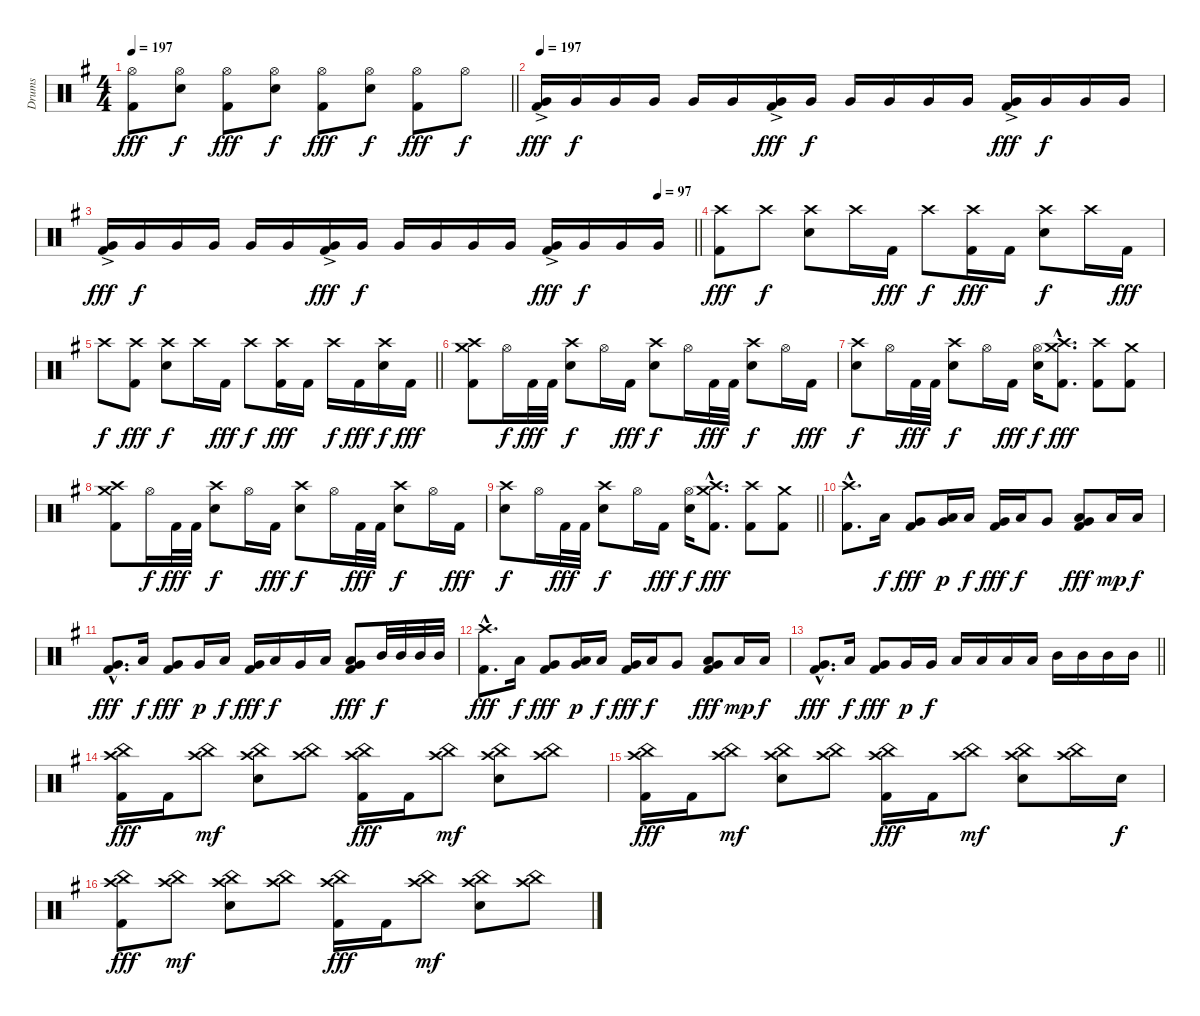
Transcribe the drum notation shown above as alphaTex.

\track ("Drums" "Drums") {instrument percussion}
\staff {score}
\articulation defaults
\ts (4 4)
\tempo 197
\clef neutral
\barLineRight lightlight
\ks eminor
("Hi-Hat (open)" "Kick (hit) 2").8{dy fff} ("Hi-Hat (open)" "Snare (hit) 2").8{dy f} ("Hi-Hat (open)" "Kick (hit) 2").8{dy fff} ("Hi-Hat (open)" "Snare (hit) 2").8{dy f} ("Hi-Hat (open)" "Kick (hit) 2").8{dy fff} ("Hi-Hat (open)" "Snare (hit) 2").8{dy f} ("Hi-Hat (open)" "Kick (hit) 2").8{dy fff} "Hi-Hat (open)".8{dy f} |
\tempo 197
("Very Low Tom (hit)"{ac} "Kick (hit) 2").16{dy fff} "Very Low Tom (hit)".16{dy f} "Very Low Tom (hit)".16 "Very Low Tom (hit)".16 "Very Low Tom (hit)".16 "Very Low Tom (hit)".16 ("Very Low Tom (hit)"{ac} "Kick (hit) 2").16{dy fff} "Very Low Tom (hit)".16{dy f} "Very Low Tom (hit)".16 "Very Low Tom (hit)".16 "Very Low Tom (hit)".16 "Very Low Tom (hit)".16 ("Very Low Tom (hit)"{ac} "Kick (hit) 2").16{dy fff} "Very Low Tom (hit)".16{dy f} "Very Low Tom (hit)".16 "Very Low Tom (hit)".16 |
\tempo (97 0.9375)
\barLineRight lightlight
("Very Low Tom (hit)"{ac} "Kick (hit) 2").16{dy fff} "Very Low Tom (hit)".16{dy f} "Very Low Tom (hit)".16 "Very Low Tom (hit)".16 "Very Low Tom (hit)".16 "Very Low Tom (hit)".16 ("Very Low Tom (hit)"{ac} "Kick (hit) 2").16{dy fff} "Very Low Tom (hit)".16{dy f} "Very Low Tom (hit)".16 "Very Low Tom (hit)".16 "Very Low Tom (hit)".16 "Very Low Tom (hit)".16 ("Very Low Tom (hit)"{ac} "Kick (hit) 2").16{dy fff} "Very Low Tom (hit)".16{dy f} "Very Low Tom (hit)".16 "Very Low Tom (hit)".16 |
("Crash high (hit)" "Kick (hit) 2").8{dy fff} "Crash high (hit)".8{dy f} ("Crash high (hit)" "Snare (hit) 2").8 "Crash high (hit)".16 "Kick (hit) 2".16{dy fff} "Crash high (hit)".8{dy f} ("Crash high (hit)" "Kick (hit) 2").16{dy fff} "Kick (hit) 2".16 ("Crash high (hit)" "Snare (hit) 2").8{dy f} "Crash high (hit)".16 "Kick (hit) 2".16{dy fff} |
\barLineRight lightlight "Crash high (hit)".8{dy f}
("Crash high (hit)" "Kick (hit) 2").8{dy fff} ("Crash high (hit)" "Snare (hit) 2").8{dy f} "Crash high (hit)".16 "Kick (hit) 2".16{dy fff} "Crash high (hit)".8{dy f} ("Crash high (hit)" "Kick (hit) 2").16{dy fff} "Kick (hit) 2".16 "Crash high (hit)".16{dy f} "Kick (hit) 2".16{dy fff} ("Crash high (hit)" "Snare (hit) 2").16{dy f} "Kick (hit) 2".16{dy fff} |
("Crash high (hit)" "Crash medium (hit)" "Kick (hit) 2").8 "Hi-Hat (open)".16{dy f} "Kick (hit) 2".32{dy fff} "Kick (hit) 2".32 ("Crash high (hit)" "Snare (hit) 2").8{dy f} "Hi-Hat (open)".16 "Kick (hit) 2".16{dy fff} ("Crash high (hit)" "Snare (hit) 2").8{dy f} "Hi-Hat (open)".16 "Kick (hit) 2".32{dy fff} "Kick (hit) 2".32 ("Crash high (hit)" "Snare (hit) 2").8{dy f} "Hi-Hat (open)".16 "Kick (hit) 2".16{dy fff} |
("Crash high (hit)" "Snare (hit) 2").8{dy f} "Hi-Hat (open)".16 "Kick (hit) 2".32{dy fff} "Kick (hit) 2".32 ("Crash high (hit)" "Snare (hit) 2").8{dy f} "Hi-Hat (open)".16 "Kick (hit) 2".16{dy fff} ("Hi-Hat (open)" "Snare (hit) 2").16{dy f} ("Crash high (hit)"{hac} "Crash medium (hit)"{hac} "Kick (hit) 2"{hac}).8{d dy fff} ("Crash high (hit)" "Kick (hit) 2").8 ("Crash medium (hit)" "Kick (hit) 2").8 |
("Crash high (hit)" "Crash medium (hit)" "Kick (hit) 2").8 "Hi-Hat (open)".16{dy f} "Kick (hit) 2".32{dy fff} "Kick (hit) 2".32 ("Crash high (hit)" "Snare (hit) 2").8{dy f} "Hi-Hat (open)".16 "Kick (hit) 2".16{dy fff} ("Crash high (hit)" "Snare (hit) 2").8{dy f} "Hi-Hat (open)".16 "Kick (hit) 2".32{dy fff} "Kick (hit) 2".32 ("Crash high (hit)" "Snare (hit) 2").8{dy f} "Hi-Hat (open)".16 "Kick (hit) 2".16{dy fff} |
\barLineRight lightlight
("Crash high (hit)" "Snare (hit) 2").8{dy f} "Hi-Hat (open)".16 "Kick (hit) 2".32{dy fff} "Kick (hit) 2".32 ("Crash high (hit)" "Snare (hit) 2").8{dy f} "Hi-Hat (open)".16 "Kick (hit) 2".16{dy fff} ("Hi-Hat (open)" "Snare (hit) 2").16{dy f} ("Crash high (hit)"{hac} "Crash medium (hit)"{hac} "Kick (hit) 2"{hac}).8{d dy fff} ("Crash high (hit)" "Kick (hit) 2").8 ("Crash medium (hit)" "Kick (hit) 2").8 |
("Crash high (hit)"{hac} "Kick (hit) 2"{hac}).8{d} "Low Tom (hit)".16{dy f} ("Very Low Tom (hit)" "Kick (hit) 2").8{dy fff} ("Low Tom (hit)" "Very Low Tom (hit)").16{dy p} "Low Tom (hit)".16{dy f} ("Very Low Tom (hit)" "Kick (hit) 2").16{dy fff} "Low Tom (hit)".16{dy f} "Very Low Tom (hit)".8 ("Low Tom (hit)" "Very Low Tom (hit)" "Kick (hit) 2").8{dy fff} "Low Tom (hit)".16{dy mp} "Low Tom (hit)".16{dy f} |
("Very Low Tom (hit)"{hac} "Kick (hit) 2"{hac}).8{d dy fff} "Low Tom (hit)".16{dy f} ("Very Low Tom (hit)" "Kick (hit) 2").8{dy fff} "Very Low Tom (hit)".16{dy p} "Low Tom (hit)".16{dy f} ("Very Low Tom (hit)" "Kick (hit) 2").16{dy fff} "Low Tom (hit)".16{dy f} "Very Low Tom (hit)".16 "Low Tom (hit)".16 ("Low Tom (hit)" "Very Low Tom (hit)" "Kick (hit) 2").8{dy fff} "Mid Tom (hit)".32{dy f} "Mid Tom (hit)".32 "Mid Tom (hit)".32 "Mid Tom (hit)".32 |
("Crash high (hit)"{hac} "Kick (hit) 2"{hac}).8{d dy fff} "Low Tom (hit)".16{dy f} ("Very Low Tom (hit)" "Kick (hit) 2").8{dy fff} ("Low Tom (hit)" "Very Low Tom (hit)").16{dy p} "Low Tom (hit)".16{dy f} ("Very Low Tom (hit)" "Kick (hit) 2").16{dy fff} "Low Tom (hit)".16{dy f} "Very Low Tom (hit)".8 ("Low Tom (hit)" "Very Low Tom (hit)" "Kick (hit) 2").8{dy fff} "Low Tom (hit)".16{dy mp} "Low Tom (hit)".16{dy f} |
\barLineRight lightlight
("Very Low Tom (hit)"{hac} "Kick (hit) 2"{hac}).8{d dy fff} "Low Tom (hit)".16{dy f} ("Very Low Tom (hit)" "Kick (hit) 2").8{dy fff} "Very Low Tom (hit)".16{dy p} "Very Low Tom (hit)".16{dy f} "Low Tom (hit)".16 "Low Tom (hit)".16 "Low Tom (hit)".16 "Low Tom (hit)".16 "Mid Tom (hit)".16 "Mid Tom (hit)".16 "Mid Tom (hit)".16 "Mid Tom (hit)".16 |
("Crash high (hit)" "China (hit)" "Kick (hit) 2").16{dy fff} "Kick (hit) 2".16 ("Crash high (hit)" "China (hit)").8{dy mf} ("Crash high (hit)" "China (hit)" "Snare (hit) 2").8 ("Crash high (hit)" "China (hit)").8 ("Crash high (hit)" "China (hit)" "Kick (hit) 2").16{dy fff} "Kick (hit) 2".16 ("Crash high (hit)" "China (hit)").8{dy mf} ("Crash high (hit)" "China (hit)" "Snare (hit) 2").8 ("Crash high (hit)" "China (hit)").8 |
("Crash high (hit)" "China (hit)" "Kick (hit) 2").16{dy fff} "Kick (hit) 2".16 ("Crash high (hit)" "China (hit)").8{dy mf} ("Crash high (hit)" "China (hit)" "Snare (hit) 2").8 ("Crash high (hit)" "China (hit)").8 ("Crash high (hit)" "China (hit)" "Kick (hit) 2").16{dy fff} "Kick (hit) 2".16 ("Crash high (hit)" "China (hit)").8{dy mf} ("Crash high (hit)" "China (hit)" "Snare (hit) 2").8 ("Crash high (hit)" "China (hit)").16 "Snare (hit) 2".16{dy f} |
("Crash high (hit)" "China (hit)" "Kick (hit) 2").8{dy fff} ("Crash high (hit)" "China (hit)").8{dy mf} ("Crash high (hit)" "China (hit)" "Snare (hit) 2").8 ("Crash high (hit)" "China (hit)").8 ("Crash high (hit)" "China (hit)" "Kick (hit) 2").16{dy fff} "Kick (hit) 2".16 ("Crash high (hit)" "China (hit)").8{dy mf} ("Crash high (hit)" "China (hit)" "Snare (hit) 2").8 ("Crash high (hit)" "China (hit)").8
